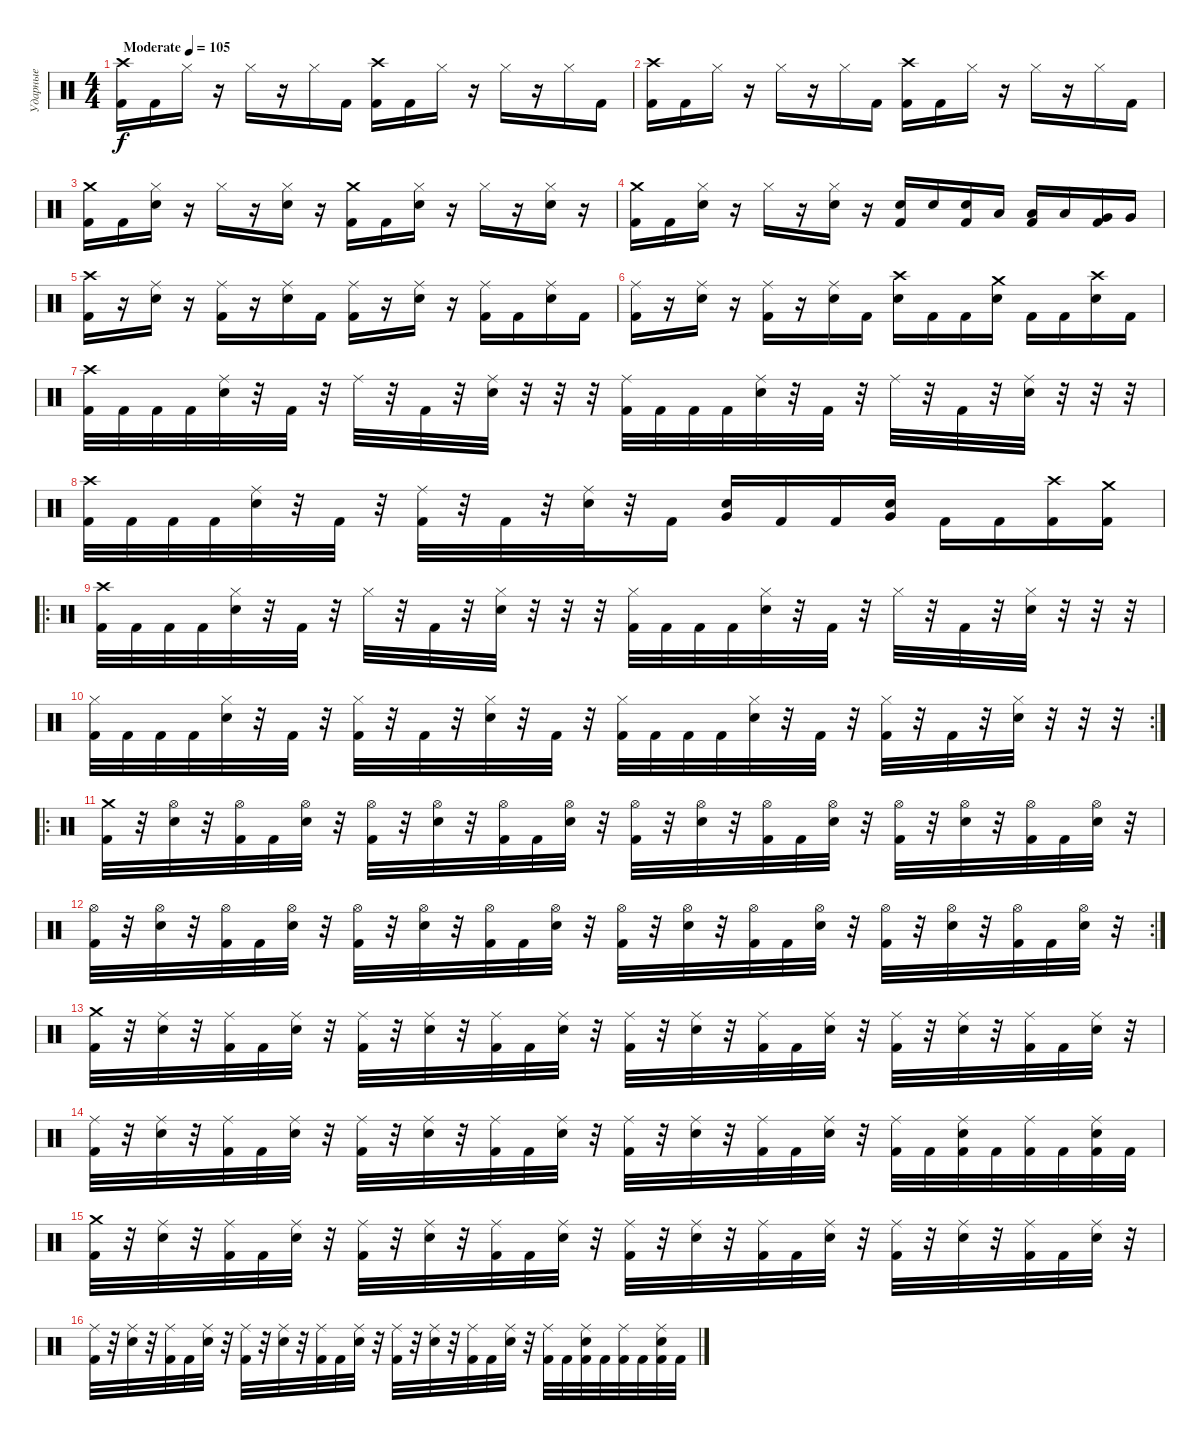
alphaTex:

\track ("Ударные" "Ударные") {instrument percussion}
\staff {score}
\articulation defaults
\ts (4 4)
\tempo (105 "Moderate")
\clef neutral
\ks c
("Crash high (hit)" "Kick (hit) 2").16{dy f} "Kick (hit) 2".16 "Hi-Hat (closed)".16 r.16 "Hi-Hat (closed)".16 r.16 "Hi-Hat (closed)".16 "Kick (hit) 2".16 ("Crash high (hit)" "Kick (hit) 2").16 "Kick (hit) 2".16 "Hi-Hat (closed)".16 r.16 "Hi-Hat (closed)".16 r.16 "Hi-Hat (closed)".16 "Kick (hit) 2".16 |
("Crash high (hit)" "Kick (hit) 2").16 "Kick (hit) 2".16 "Hi-Hat (closed)".16 r.16 "Hi-Hat (closed)".16 r.16 "Hi-Hat (closed)".16 "Kick (hit) 2".16 ("Crash high (hit)" "Kick (hit) 2").16 "Kick (hit) 2".16 "Hi-Hat (closed)".16 r.16 "Hi-Hat (closed)".16 r.16 "Hi-Hat (closed)".16 "Kick (hit) 2".16 |
("Crash medium (hit)" "Kick (hit) 2").16 "Kick (hit) 2".16 ("Hi-Hat (closed)" "Electric Snare (hit)").16 r.16 "Hi-Hat (closed)".16 r.16 ("Hi-Hat (closed)" "Electric Snare (hit)").16 r.16 ("Crash medium (hit)" "Kick (hit) 2").16 "Kick (hit) 2".16 ("Hi-Hat (closed)" "Electric Snare (hit)").16 r.16 "Hi-Hat (closed)".16 r.16 ("Hi-Hat (closed)" "Electric Snare (hit)").16 r.16 |
("Crash medium (hit)" "Kick (hit) 2").16 "Kick (hit) 2".16 ("Hi-Hat (closed)" "Electric Snare (hit)").16 r.16 "Hi-Hat (closed)".16 r.16 ("Hi-Hat (closed)" "Electric Snare (hit)").16 r.16 ("Electric Snare (hit)" "Kick (hit) 2").16 "Electric Snare (hit)".16 ("Electric Snare (hit)" "Kick (hit) 2").16 "Low Tom (hit)".16 ("Low Tom (hit)" "Kick (hit) 2").16 "Low Tom (hit)".16 ("Very Low Tom (hit)" "Kick (hit) 2").16 "Very Low Tom (hit)".16 |
("Crash high (hit)" "Kick (hit) 2").16 r.16 ("Ride (middle)" "Electric Snare (hit)").16 r.16 ("Ride (middle)" "Kick (hit) 2").16 r.16 ("Ride (middle)" "Electric Snare (hit)").16 "Kick (hit) 2".16 ("Ride (middle)" "Kick (hit) 2").16 r.16 ("Ride (middle)" "Electric Snare (hit)").16 r.16 ("Ride (middle)" "Kick (hit) 2").16 "Kick (hit) 2".16 ("Ride (middle)" "Electric Snare (hit)").16 "Kick (hit) 2".16 |
("Ride (middle)" "Kick (hit) 2").16 r.16 ("Ride (middle)" "Electric Snare (hit)").16 r.16 ("Ride (middle)" "Kick (hit) 2").16 r.16 ("Ride (middle)" "Electric Snare (hit)").16 "Kick (hit) 2".16 ("Crash high (hit)" "Electric Snare (hit)").16 "Kick (hit) 2".16 "Kick (hit) 2".16 ("Crash medium (hit)" "Electric Snare (hit)").16 "Kick (hit) 2".16 "Kick (hit) 2".16 ("Crash high (hit)" "Electric Snare (hit)").16 "Kick (hit) 2".16 |
("Crash high (hit)" "Kick (hit) 2").32 "Kick (hit) 2".32 "Kick (hit) 2".32 "Kick (hit) 2".32 ("Ride (middle)" "Electric Snare (hit)").32 r.32 "Kick (hit) 2".32 r.32 "Ride (middle)".32 r.32 "Kick (hit) 2".32 r.32 ("Ride (middle)" "Electric Snare (hit)").32 r.32 r.32 r.32 ("Ride (middle)" "Kick (hit) 2").32 "Kick (hit) 2".32 "Kick (hit) 2".32 "Kick (hit) 2".32 ("Ride (middle)" "Electric Snare (hit)").32 r.32 "Kick (hit) 2".32 r.32 "Ride (middle)".32 r.32 "Kick (hit) 2".32 r.32 ("Ride (middle)" "Electric Snare (hit)").32 r.32 r.32 r.32 |
("Crash high (hit)" "Kick (hit) 2").32 "Kick (hit) 2".32 "Kick (hit) 2".32 "Kick (hit) 2".32 ("Ride (middle)" "Electric Snare (hit)").32 r.32 "Kick (hit) 2".32 r.32 ("Ride (middle)" "Kick (hit) 2").32 r.32 "Kick (hit) 2".32 r.32 ("Ride (middle)" "Electric Snare (hit)").32 r.32 "Kick (hit) 2".16 ("Very Low Tom (hit)" "Electric Snare (hit)").16 "Kick (hit) 2".16 "Kick (hit) 2".16 ("Very Low Tom (hit)" "Electric Snare (hit)").16 "Kick (hit) 2".16 "Kick (hit) 2".16 ("Crash high (hit)" "Kick (hit) 2").16 ("Crash medium (hit)" "Kick (hit) 2").16 |
\ro
("Crash high (hit)" "Kick (hit) 2").32 "Kick (hit) 2".32 "Kick (hit) 2".32 "Kick (hit) 2".32 ("Hi-Hat (closed)" "Electric Snare (hit)").32 r.32 "Kick (hit) 2".32 r.32 "Hi-Hat (closed)".32 r.32 "Kick (hit) 2".32 r.32 ("Hi-Hat (closed)" "Electric Snare (hit)").32 r.32 r.32 r.32 ("Hi-Hat (closed)" "Kick (hit) 2").32 "Kick (hit) 2".32 "Kick (hit) 2".32 "Kick (hit) 2".32 ("Hi-Hat (closed)" "Electric Snare (hit)").32 r.32 "Kick (hit) 2".32 r.32 "Hi-Hat (closed)".32 r.32 "Kick (hit) 2".32 r.32 ("Hi-Hat (closed)" "Electric Snare (hit)").32 r.32 r.32 r.32 |
\rc 2
("Hi-Hat (closed)" "Kick (hit) 2").32 "Kick (hit) 2".32 "Kick (hit) 2".32 "Kick (hit) 2".32 ("Hi-Hat (closed)" "Electric Snare (hit)").32 r.32 "Kick (hit) 2".32 r.32 ("Hi-Hat (closed)" "Kick (hit) 2").32 r.32 "Kick (hit) 2".32 r.32 ("Hi-Hat (closed)" "Electric Snare (hit)").32 r.32 "Kick (hit) 2".32 r.32 ("Hi-Hat (closed)" "Kick (hit) 2").32 "Kick (hit) 2".32 "Kick (hit) 2".32 "Kick (hit) 2".32 ("Hi-Hat (closed)" "Electric Snare (hit)").32 r.32 "Kick (hit) 2".32 r.32 ("Hi-Hat (closed)" "Kick (hit) 2").32 r.32 "Kick (hit) 2".32 r.32 ("Hi-Hat (closed)" "Electric Snare (hit)").32 r.32 r.32 r.32 |
\ro
("Crash medium (hit)" "Kick (hit) 2").32 r.32 ("Hi-Hat (open)" "Electric Snare (hit)").32 r.32 ("Hi-Hat (open)" "Kick (hit) 2").32 "Kick (hit) 2".32 ("Hi-Hat (open)" "Electric Snare (hit)").32 r.32 ("Hi-Hat (open)" "Kick (hit) 2").32 r.32 ("Hi-Hat (open)" "Electric Snare (hit)").32 r.32 ("Hi-Hat (open)" "Kick (hit) 2").32 "Kick (hit) 2".32 ("Hi-Hat (open)" "Electric Snare (hit)").32 r.32 ("Hi-Hat (open)" "Kick (hit) 2").32 r.32 ("Hi-Hat (open)" "Electric Snare (hit)").32 r.32 ("Hi-Hat (open)" "Kick (hit) 2").32 "Kick (hit) 2".32 ("Hi-Hat (open)" "Electric Snare (hit)").32 r.32 ("Hi-Hat (open)" "Kick (hit) 2").32 r.32 ("Hi-Hat (open)" "Electric Snare (hit)").32 r.32 ("Hi-Hat (open)" "Kick (hit) 2").32 "Kick (hit) 2".32 ("Hi-Hat (open)" "Electric Snare (hit)").32 r.32 |
\rc 2
("Hi-Hat (open)" "Kick (hit) 2").32 r.32 ("Hi-Hat (open)" "Electric Snare (hit)").32 r.32 ("Hi-Hat (open)" "Kick (hit) 2").32 "Kick (hit) 2".32 ("Hi-Hat (open)" "Electric Snare (hit)").32 r.32 ("Hi-Hat (open)" "Kick (hit) 2").32 r.32 ("Hi-Hat (open)" "Electric Snare (hit)").32 r.32 ("Hi-Hat (open)" "Kick (hit) 2").32 "Kick (hit) 2".32 ("Hi-Hat (open)" "Electric Snare (hit)").32 r.32 ("Hi-Hat (open)" "Kick (hit) 2").32 r.32 ("Hi-Hat (open)" "Electric Snare (hit)").32 r.32 ("Hi-Hat (open)" "Kick (hit) 2").32 "Kick (hit) 2".32 ("Hi-Hat (open)" "Electric Snare (hit)").32 r.32 ("Hi-Hat (open)" "Kick (hit) 2").32 r.32 ("Hi-Hat (open)" "Electric Snare (hit)").32 r.32 ("Hi-Hat (open)" "Kick (hit) 2").32 "Kick (hit) 2".32 ("Hi-Hat (open)" "Electric Snare (hit)").32 r.32 |
("Crash medium (hit)" "Kick (hit) 2").32 r.32 ("Ride (middle)" "Electric Snare (hit)").32 r.32 ("Ride (middle)" "Kick (hit) 2").32 "Kick (hit) 2".32 ("Ride (middle)" "Electric Snare (hit)").32 r.32 ("Ride (middle)" "Kick (hit) 2").32 r.32 ("Ride (middle)" "Electric Snare (hit)").32 r.32 ("Ride (middle)" "Kick (hit) 2").32 "Kick (hit) 2".32 ("Ride (middle)" "Electric Snare (hit)").32 r.32 ("Ride (middle)" "Kick (hit) 2").32 r.32 ("Ride (middle)" "Electric Snare (hit)").32 r.32 ("Ride (middle)" "Kick (hit) 2").32 "Kick (hit) 2".32 ("Ride (middle)" "Electric Snare (hit)").32 r.32 ("Ride (middle)" "Kick (hit) 2").32 r.32 ("Ride (middle)" "Electric Snare (hit)").32 r.32 ("Ride (middle)" "Kick (hit) 2").32 "Kick (hit) 2".32 ("Ride (middle)" "Electric Snare (hit)").32 r.32 |
("Ride (middle)" "Kick (hit) 2").32 r.32 ("Ride (middle)" "Electric Snare (hit)").32 r.32 ("Ride (middle)" "Kick (hit) 2").32 "Kick (hit) 2".32 ("Ride (middle)" "Electric Snare (hit)").32 r.32 ("Ride (middle)" "Kick (hit) 2").32 r.32 ("Ride (middle)" "Electric Snare (hit)").32 r.32 ("Ride (middle)" "Kick (hit) 2").32 "Kick (hit) 2".32 ("Ride (middle)" "Electric Snare (hit)").32 r.32 ("Ride (middle)" "Kick (hit) 2").32 r.32 ("Ride (middle)" "Electric Snare (hit)").32 r.32 ("Ride (middle)" "Kick (hit) 2").32 "Kick (hit) 2".32 ("Ride (middle)" "Electric Snare (hit)").32 r.32 ("Ride (middle)" "Kick (hit) 2").32 "Kick (hit) 2".32 ("Ride (middle)" "Electric Snare (hit)" "Kick (hit) 2").32 "Kick (hit) 2".32 ("Ride (middle)" "Kick (hit) 2").32 "Kick (hit) 2".32 ("Ride (middle)" "Electric Snare (hit)" "Kick (hit) 2").32 "Kick (hit) 2".32 |
("Crash medium (hit)" "Kick (hit) 2").32 r.32 ("Ride (middle)" "Electric Snare (hit)").32 r.32 ("Ride (middle)" "Kick (hit) 2").32 "Kick (hit) 2".32 ("Ride (middle)" "Electric Snare (hit)").32 r.32 ("Ride (middle)" "Kick (hit) 2").32 r.32 ("Ride (middle)" "Electric Snare (hit)").32 r.32 ("Ride (middle)" "Kick (hit) 2").32 "Kick (hit) 2".32 ("Ride (middle)" "Electric Snare (hit)").32 r.32 ("Ride (middle)" "Kick (hit) 2").32 r.32 ("Ride (middle)" "Electric Snare (hit)").32 r.32 ("Ride (middle)" "Kick (hit) 2").32 "Kick (hit) 2".32 ("Ride (middle)" "Electric Snare (hit)").32 r.32 ("Ride (middle)" "Kick (hit) 2").32 r.32 ("Ride (middle)" "Electric Snare (hit)").32 r.32 ("Ride (middle)" "Kick (hit) 2").32 "Kick (hit) 2".32 ("Ride (middle)" "Electric Snare (hit)").32 r.32 |
("Ride (middle)" "Kick (hit) 2").32 r.32 ("Ride (middle)" "Electric Snare (hit)").32 r.32 ("Ride (middle)" "Kick (hit) 2").32 "Kick (hit) 2".32 ("Ride (middle)" "Electric Snare (hit)").32 r.32 ("Ride (middle)" "Kick (hit) 2").32 r.32 ("Ride (middle)" "Electric Snare (hit)").32 r.32 ("Ride (middle)" "Kick (hit) 2").32 "Kick (hit) 2".32 ("Ride (middle)" "Electric Snare (hit)").32 r.32 ("Ride (middle)" "Kick (hit) 2").32 r.32 ("Ride (middle)" "Electric Snare (hit)").32 r.32 ("Ride (middle)" "Kick (hit) 2").32 "Kick (hit) 2".32 ("Ride (middle)" "Electric Snare (hit)").32 r.32 ("Ride (middle)" "Kick (hit) 2").32 "Kick (hit) 2".32 ("Ride (middle)" "Electric Snare (hit)" "Kick (hit) 2").32 "Kick (hit) 2".32 ("Ride (middle)" "Kick (hit) 2").32 "Kick (hit) 2".32 ("Ride (middle)" "Electric Snare (hit)" "Kick (hit) 2").32 "Kick (hit) 2".32
